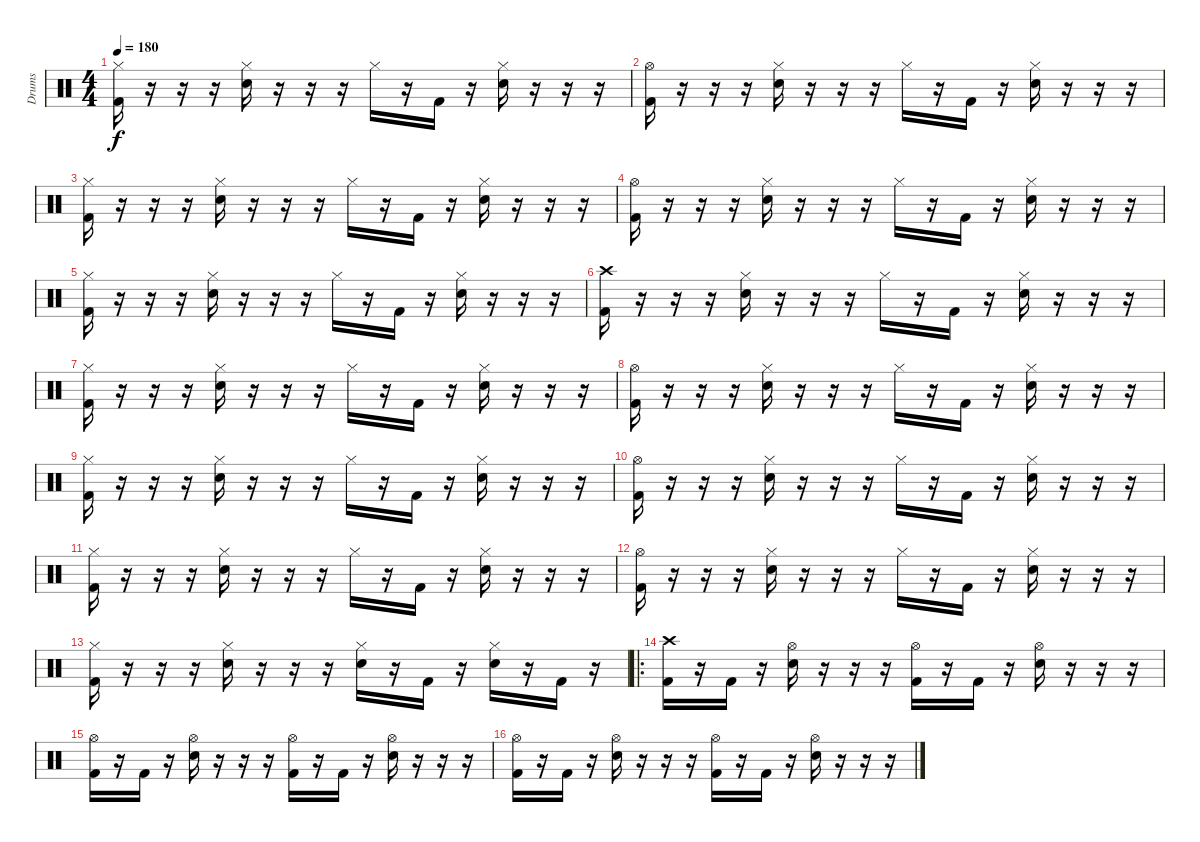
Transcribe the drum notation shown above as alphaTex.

\track ("Drums" "Drums") {instrument percussion}
\staff {score}
\articulation defaults
\ts (4 4)
\tempo 180
\clef neutral
\ks c
("Hi-Hat (closed)" "Kick (hit) 2").16{dy f} r.16 r.16 r.16 ("Hi-Hat (closed)" "Snare (hit) 2").16 r.16 r.16 r.16 "Hi-Hat (closed)".16 r.16 "Kick (hit) 2".16 r.16 ("Hi-Hat (closed)" "Snare (hit) 2").16 r.16 r.16 r.16 |
("Hi-Hat (open)" "Kick (hit) 2").16 r.16 r.16 r.16 ("Hi-Hat (closed)" "Snare (hit) 2").16 r.16 r.16 r.16 "Hi-Hat (closed)".16 r.16 "Kick (hit) 2".16 r.16 ("Hi-Hat (closed)" "Snare (hit) 2").16 r.16 r.16 r.16 |
("Hi-Hat (closed)" "Kick (hit) 2").16 r.16 r.16 r.16 ("Hi-Hat (closed)" "Snare (hit) 2").16 r.16 r.16 r.16 "Hi-Hat (closed)".16 r.16 "Kick (hit) 2".16 r.16 ("Hi-Hat (closed)" "Snare (hit) 2").16 r.16 r.16 r.16 |
("Hi-Hat (open)" "Kick (hit) 2").16 r.16 r.16 r.16 ("Hi-Hat (closed)" "Snare (hit) 2").16 r.16 r.16 r.16 "Hi-Hat (closed)".16 r.16 "Kick (hit) 2".16 r.16 ("Hi-Hat (closed)" "Snare (hit) 2").16 r.16 r.16 r.16 |
("Hi-Hat (closed)" "Kick (hit) 2").16 r.16 r.16 r.16 ("Hi-Hat (closed)" "Snare (hit) 2").16 r.16 r.16 r.16 "Hi-Hat (closed)".16 r.16 "Kick (hit) 2".16 r.16 ("Hi-Hat (closed)" "Snare (hit) 2").16 r.16 r.16 r.16 |
("Crash high (hit)" "Kick (hit) 2").16 r.16 r.16 r.16 ("Hi-Hat (closed)" "Snare (hit) 2").16 r.16 r.16 r.16 "Hi-Hat (closed)".16 r.16 "Kick (hit) 2".16 r.16 ("Hi-Hat (closed)" "Snare (hit) 2").16 r.16 r.16 r.16 |
("Hi-Hat (closed)" "Kick (hit) 2").16 r.16 r.16 r.16 ("Hi-Hat (closed)" "Snare (hit) 2").16 r.16 r.16 r.16 "Hi-Hat (closed)".16 r.16 "Kick (hit) 2".16 r.16 ("Hi-Hat (closed)" "Snare (hit) 2").16 r.16 r.16 r.16 |
("Hi-Hat (open)" "Kick (hit) 2").16 r.16 r.16 r.16 ("Hi-Hat (closed)" "Snare (hit) 2").16 r.16 r.16 r.16 "Hi-Hat (closed)".16 r.16 "Kick (hit) 2".16 r.16 ("Hi-Hat (closed)" "Snare (hit) 2").16 r.16 r.16 r.16 |
("Hi-Hat (closed)" "Kick (hit) 2").16 r.16 r.16 r.16 ("Hi-Hat (closed)" "Snare (hit) 2").16 r.16 r.16 r.16 "Hi-Hat (closed)".16 r.16 "Kick (hit) 2".16 r.16 ("Hi-Hat (closed)" "Snare (hit) 2").16 r.16 r.16 r.16 |
("Hi-Hat (open)" "Kick (hit) 2").16 r.16 r.16 r.16 ("Hi-Hat (closed)" "Snare (hit) 2").16 r.16 r.16 r.16 "Hi-Hat (closed)".16 r.16 "Kick (hit) 2".16 r.16 ("Hi-Hat (closed)" "Snare (hit) 2").16 r.16 r.16 r.16 |
("Hi-Hat (closed)" "Kick (hit) 2").16 r.16 r.16 r.16 ("Hi-Hat (closed)" "Snare (hit) 2").16 r.16 r.16 r.16 "Hi-Hat (closed)".16 r.16 "Kick (hit) 2".16 r.16 ("Hi-Hat (closed)" "Snare (hit) 2").16 r.16 r.16 r.16 |
("Hi-Hat (open)" "Kick (hit) 2").16 r.16 r.16 r.16 ("Hi-Hat (closed)" "Snare (hit) 2").16 r.16 r.16 r.16 "Hi-Hat (closed)".16 r.16 "Kick (hit) 2".16 r.16 ("Hi-Hat (closed)" "Snare (hit) 2").16 r.16 r.16 r.16 |
("Hi-Hat (closed)" "Kick (hit) 2").16 r.16 r.16 r.16 ("Hi-Hat (closed)" "Snare (hit) 2").16 r.16 r.16 r.16 ("Hi-Hat (closed)" "Snare (hit) 2").16 r.16 "Kick (hit) 2".16 r.16 ("Hi-Hat (closed)" "Snare (hit) 2").16 r.16 "Kick (hit) 2".16 r.16 |
\ro
("Crash high (hit)" "Kick (hit) 2").16 r.16 "Kick (hit) 2".16 r.16 ("Hi-Hat (open)" "Snare (hit) 2").16 r.16 r.16 r.16 ("Hi-Hat (open)" "Kick (hit) 2").16 r.16 "Kick (hit) 2".16 r.16 ("Hi-Hat (open)" "Snare (hit) 2").16 r.16 r.16 r.16 |
("Hi-Hat (open)" "Kick (hit) 2").16 r.16 "Kick (hit) 2".16 r.16 ("Hi-Hat (open)" "Snare (hit) 2").16 r.16 r.16 r.16 ("Hi-Hat (open)" "Kick (hit) 2").16 r.16 "Kick (hit) 2".16 r.16 ("Hi-Hat (open)" "Snare (hit) 2").16 r.16 r.16 r.16 |
("Hi-Hat (open)" "Kick (hit) 2").16 r.16 "Kick (hit) 2".16 r.16 ("Hi-Hat (open)" "Snare (hit) 2").16 r.16 r.16 r.16 ("Hi-Hat (open)" "Kick (hit) 2").16 r.16 "Kick (hit) 2".16 r.16 ("Hi-Hat (open)" "Snare (hit) 2").16 r.16 r.16 r.16
